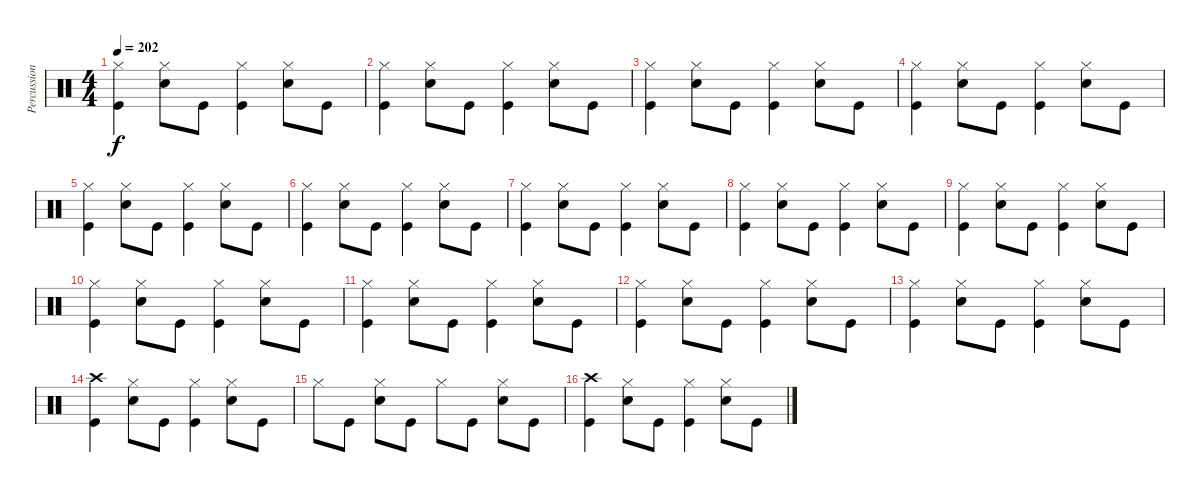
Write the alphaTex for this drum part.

\track ("Percussion" "Percussion") {instrument percussion}
\staff {score}
\articulation defaults
\ts (4 4)
\tempo 202
\clef neutral
\ks c
("Hi-Hat (closed)" "Kick (hit)").4{dy f} ("Hi-Hat (closed)" "Snare (hit) 2").8 "Kick (hit)".8 ("Kick (hit)" "Hi-Hat (closed)").4 ("Hi-Hat (closed)" "Snare (hit) 2").8 "Kick (hit)".8 |
("Hi-Hat (closed)" "Kick (hit)").4 ("Hi-Hat (closed)" "Snare (hit) 2").8 "Kick (hit)".8 ("Kick (hit)" "Hi-Hat (closed)").4 ("Hi-Hat (closed)" "Snare (hit) 2").8 "Kick (hit)".8 |
("Hi-Hat (closed)" "Kick (hit)").4 ("Hi-Hat (closed)" "Snare (hit) 2").8 "Kick (hit)".8 ("Kick (hit)" "Hi-Hat (closed)").4 ("Hi-Hat (closed)" "Snare (hit) 2").8 "Kick (hit)".8 |
("Hi-Hat (closed)" "Kick (hit)").4 ("Hi-Hat (closed)" "Snare (hit) 2").8 "Kick (hit)".8 ("Kick (hit)" "Hi-Hat (closed)").4 ("Hi-Hat (closed)" "Snare (hit) 2").8 "Kick (hit)".8 |
("Hi-Hat (closed)" "Kick (hit)").4 ("Hi-Hat (closed)" "Snare (hit) 2").8 "Kick (hit)".8 ("Kick (hit)" "Hi-Hat (closed)").4 ("Hi-Hat (closed)" "Snare (hit) 2").8 "Kick (hit)".8 |
("Hi-Hat (closed)" "Kick (hit)").4 ("Hi-Hat (closed)" "Snare (hit) 2").8 "Kick (hit)".8 ("Kick (hit)" "Hi-Hat (closed)").4 ("Hi-Hat (closed)" "Snare (hit) 2").8 "Kick (hit)".8 |
("Hi-Hat (closed)" "Kick (hit)").4 ("Hi-Hat (closed)" "Snare (hit) 2").8 "Kick (hit)".8 ("Kick (hit)" "Hi-Hat (closed)").4 ("Hi-Hat (closed)" "Snare (hit) 2").8 "Kick (hit)".8 |
("Hi-Hat (closed)" "Kick (hit)").4 ("Hi-Hat (closed)" "Snare (hit) 2").8 "Kick (hit)".8 ("Kick (hit)" "Hi-Hat (closed)").4 ("Hi-Hat (closed)" "Snare (hit) 2").8 "Kick (hit)".8 |
("Hi-Hat (closed)" "Kick (hit)").4 ("Hi-Hat (closed)" "Snare (hit) 2").8 "Kick (hit)".8 ("Kick (hit)" "Hi-Hat (closed)").4 ("Hi-Hat (closed)" "Snare (hit) 2").8 "Kick (hit)".8 |
("Hi-Hat (closed)" "Kick (hit)").4 ("Hi-Hat (closed)" "Snare (hit) 2").8 "Kick (hit)".8 ("Kick (hit)" "Hi-Hat (closed)").4 ("Hi-Hat (closed)" "Snare (hit) 2").8 "Kick (hit)".8 |
("Hi-Hat (closed)" "Kick (hit)").4 ("Hi-Hat (closed)" "Snare (hit) 2").8 "Kick (hit)".8 ("Kick (hit)" "Hi-Hat (closed)").4 ("Hi-Hat (closed)" "Snare (hit) 2").8 "Kick (hit)".8 |
("Hi-Hat (closed)" "Kick (hit)").4 ("Hi-Hat (closed)" "Snare (hit) 2").8 "Kick (hit)".8 ("Kick (hit)" "Hi-Hat (closed)").4 ("Hi-Hat (closed)" "Snare (hit) 2").8 "Kick (hit)".8 |
("Hi-Hat (closed)" "Kick (hit)").4 ("Hi-Hat (closed)" "Snare (hit) 2").8 "Kick (hit)".8 ("Kick (hit)" "Hi-Hat (closed)").4 ("Hi-Hat (closed)" "Snare (hit) 2").8 "Kick (hit)".8 |
("Crash high (hit)" "Kick (hit)").4 ("Hi-Hat (closed)" "Snare (hit) 2").8 "Kick (hit)".8 ("Kick (hit)" "Hi-Hat (closed)").4 ("Hi-Hat (closed)" "Snare (hit) 2").8 "Kick (hit)".8 |
"Hi-Hat (closed)".8 "Kick (hit)".8 ("Hi-Hat (closed)" "Snare (hit) 2").8 "Kick (hit)".8 "Hi-Hat (closed)".8 "Kick (hit)".8 ("Hi-Hat (closed)" "Snare (hit) 2").8 "Kick (hit)".8 |
("Crash high (hit)" "Kick (hit)").4 ("Hi-Hat (closed)" "Snare (hit) 2").8 "Kick (hit)".8 ("Kick (hit)" "Hi-Hat (closed)").4 ("Hi-Hat (closed)" "Snare (hit) 2").8 "Kick (hit)".8
